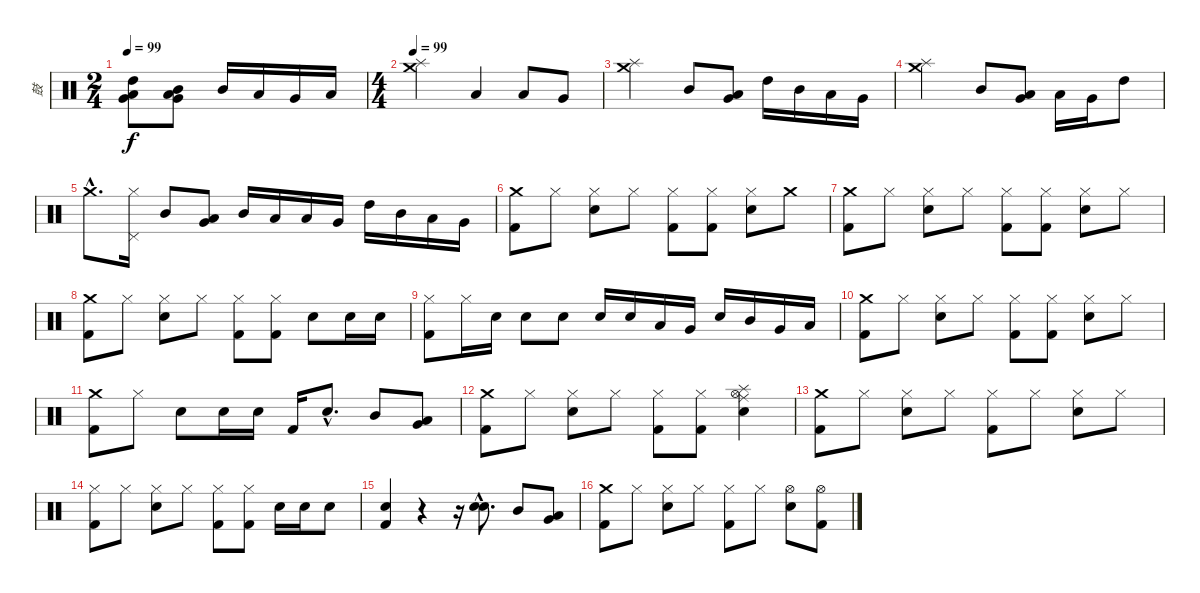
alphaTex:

\track ("鼓" "鼓") {instrument percussion}
\staff {score}
\articulation defaults
\ts (2 4)
\tempo 99
\clef neutral
\ks c
("High Tom (hit)" "Low Tom (hit)" "Very Low Tom (hit)").8{dy f} ("Very Low Tom (hit)" "Mid Tom (hit)" "Low Tom (hit)").8 "Mid Tom (hit)".16 "Low Tom (hit)".16 "Very Low Tom (hit)".16 "Low Tom (hit)".16 |
\ts (4 4)
\tempo 99
("Crash medium (hit)" "Splash (hit)").2 "Low Tom (hit)".4 "Low Tom (hit)".8 "Very Low Tom (hit)".8 |
("Crash medium (hit)" "Splash (hit)").2 "Mid Tom (hit)".8 ("Very Low Tom (hit)" "Low Tom (hit)").8 "High Tom (hit)".16 "Mid Tom (hit)".16 "Low Tom (hit)".16 "Very Low Tom (hit)".16 |
("Crash medium (hit)" "Splash (hit)").2 "Mid Tom (hit)".8 ("Very Low Tom (hit)" "Low Tom (hit)").8 "Low Tom (hit)".16 "Very Low Tom (hit)".16 "High Tom (hit)".8 |
"Crash medium (hit)"{hac}.8{d} ("Pedal Hi-Hat (hit)" "Hi-Hat (closed)").16 "Mid Tom (hit)".8 ("Very Low Tom (hit)" "Low Tom (hit)").8 "Mid Tom (hit)".16 "Low Tom (hit)".16 "Low Tom (hit)".16 "Very Low Tom (hit)".16 "High Tom (hit)".16 "Mid Tom (hit)".16 "Low Tom (hit)".16 "Very Low Tom (hit)".16 |
("Crash medium (hit)" "Kick (hit) 2").8 "Hi-Hat (closed)".8 ("Hi-Hat (closed)" "Electric Snare (hit)").8 "Hi-Hat (closed)".8 ("Hi-Hat (closed)" "Kick (hit) 2").8 ("Hi-Hat (closed)" "Kick (hit) 2").8 ("Hi-Hat (closed)" "Electric Snare (hit)").8 "Crash medium (hit)".8 |
("Crash medium (hit)" "Kick (hit) 2").8 "Hi-Hat (closed)".8 ("Hi-Hat (closed)" "Electric Snare (hit)").8 "Hi-Hat (closed)".8 ("Hi-Hat (closed)" "Kick (hit) 2").8 ("Hi-Hat (closed)" "Kick (hit) 2").8 ("Hi-Hat (closed)" "Electric Snare (hit)").8 "Hi-Hat (closed)".8 |
("Crash medium (hit)" "Kick (hit) 2").8 "Hi-Hat (closed)".8 ("Hi-Hat (closed)" "Electric Snare (hit)").8 "Hi-Hat (closed)".8 ("Hi-Hat (closed)" "Kick (hit) 2").8 ("Hi-Hat (closed)" "Kick (hit) 2").8 "Electric Snare (hit)".8 "Electric Snare (hit)".16 "Electric Snare (hit)".16 |
("Hi-Hat (closed)" "Kick (hit) 2").8 "Hi-Hat (closed)".16 "Electric Snare (hit)".16 "Electric Snare (hit)".8 "Electric Snare (hit)".8 "Electric Snare (hit)".16 "Electric Snare (hit)".16 "Low Tom (hit)".16 "Very Low Tom (hit)".16 "Electric Snare (hit)".16 "Mid Tom (hit)".16 "Very Low Tom (hit)".16 "Low Tom (hit)".16 |
("Crash medium (hit)" "Kick (hit) 2").8 "Hi-Hat (closed)".8 ("Hi-Hat (closed)" "Electric Snare (hit)").8 "Hi-Hat (closed)".8 ("Hi-Hat (closed)" "Kick (hit) 2").8 ("Hi-Hat (closed)" "Kick (hit) 2").8 ("Hi-Hat (closed)" "Electric Snare (hit)").8 "Hi-Hat (closed)".8 |
("Crash medium (hit)" "Kick (hit) 2").8 "Hi-Hat (closed)".8 "Electric Snare (hit)".8 "Electric Snare (hit)".16 "Electric Snare (hit)".16 "Kick (hit) 2".16 "Electric Snare (hit)"{hac}.8{d} "Mid Tom (hit)".8 ("Very Low Tom (hit)" "Low Tom (hit)").8 |
("Crash medium (hit)" "Kick (hit) 2").8 "Hi-Hat (closed)".8 ("Hi-Hat (closed)" "Electric Snare (hit)").8 "Hi-Hat (closed)".8 ("Hi-Hat (closed)" "Kick (hit) 2").8 ("Hi-Hat (closed)" "Kick (hit) 2").8 ("Hi-Hat (open)" "Electric Snare (hit)" "Splash (hit)" "Ride (middle)").4 |
("Crash medium (hit)" "Kick (hit) 2").8 "Hi-Hat (closed)".8 ("Hi-Hat (closed)" "Electric Snare (hit)").8 "Hi-Hat (closed)".8 ("Hi-Hat (closed)" "Kick (hit) 2").8 "Hi-Hat (closed)".8 ("Hi-Hat (closed)" "Electric Snare (hit)").8 "Hi-Hat (closed)".8 |
("Hi-Hat (closed)" "Kick (hit) 2").8 "Hi-Hat (closed)".8 ("Hi-Hat (closed)" "Electric Snare (hit)").8 "Hi-Hat (closed)".8 ("Hi-Hat (closed)" "Kick (hit) 2").8 ("Hi-Hat (closed)" "Kick (hit) 2").8 "Electric Snare (hit)".16 "Electric Snare (hit)".16 "Electric Snare (hit)".8 |
("Electric Snare (hit)" "Kick (hit) 2").4 r.4 r.16 ("Electric Snare (hit)"{hac} "Snare (hit) 2"{hac}).8{d} "Mid Tom (hit)".8 ("Very Low Tom (hit)" "Low Tom (hit)").8 |
("Crash medium (hit)" "Kick (hit) 2").8 "Hi-Hat (closed)".8 ("Hi-Hat (closed)" "Electric Snare (hit)").8 "Hi-Hat (closed)".8 ("Hi-Hat (closed)" "Kick (hit) 2").8 "Hi-Hat (closed)".8 ("Hi-Hat (open)" "Electric Snare (hit)").8 ("Hi-Hat (open)" "Kick (hit) 2").8
